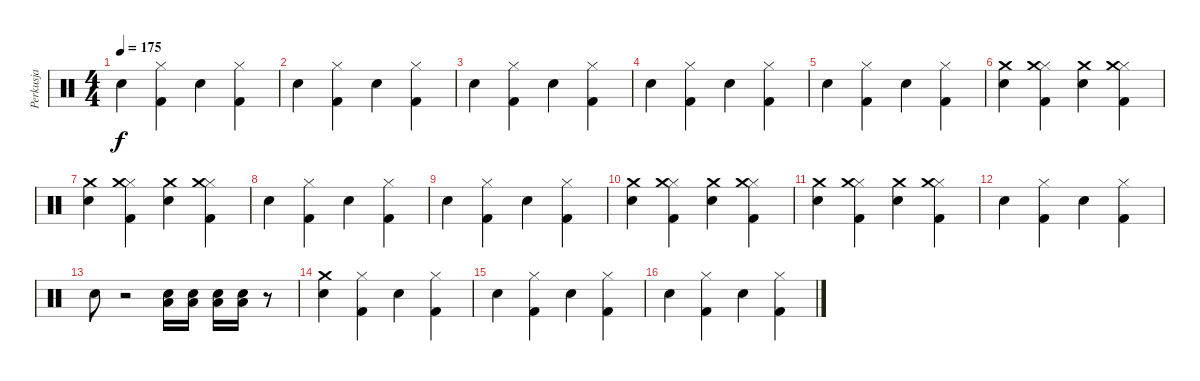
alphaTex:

\track ("Perkusja" "Perkusja") {instrument percussion}
\staff {score}
\articulation defaults
\ts (4 4)
\tempo 175
\clef neutral
\ks c "Snare (hit) 2".4{dy f}
("Kick (hit) 2" "Hi-Hat (closed)").4 "Snare (hit) 2".4 ("Kick (hit) 2" "Hi-Hat (closed)").4 |
"Snare (hit) 2".4 ("Kick (hit) 2" "Hi-Hat (closed)").4 "Snare (hit) 2".4 ("Kick (hit) 2" "Hi-Hat (closed)").4 |
"Snare (hit) 2".4 ("Kick (hit) 2" "Hi-Hat (closed)").4 "Snare (hit) 2".4 ("Kick (hit) 2" "Hi-Hat (closed)").4 |
"Snare (hit) 2".4 ("Kick (hit) 2" "Hi-Hat (closed)").4 "Snare (hit) 2".4 ("Kick (hit) 2" "Hi-Hat (closed)").4 |
"Snare (hit) 2".4 ("Kick (hit) 2" "Hi-Hat (closed)").4 "Snare (hit) 2".4 ("Kick (hit) 2" "Hi-Hat (closed)").4 |
("Snare (hit) 2" "Crash medium (hit)").4 ("Kick (hit) 2" "Hi-Hat (closed)" "Crash medium (hit)").4 ("Snare (hit) 2" "Crash medium (hit)").4 ("Kick (hit) 2" "Hi-Hat (closed)" "Crash medium (hit)").4 |
("Snare (hit) 2" "Crash medium (hit)").4 ("Kick (hit) 2" "Hi-Hat (closed)" "Crash medium (hit)").4 ("Snare (hit) 2" "Crash medium (hit)").4 ("Kick (hit) 2" "Hi-Hat (closed)" "Crash medium (hit)").4 |
"Snare (hit) 2".4 ("Kick (hit) 2" "Hi-Hat (closed)").4 "Snare (hit) 2".4 ("Kick (hit) 2" "Hi-Hat (closed)").4 |
"Snare (hit) 2".4 ("Kick (hit) 2" "Hi-Hat (closed)").4 "Snare (hit) 2".4 ("Kick (hit) 2" "Hi-Hat (closed)").4 |
("Snare (hit) 2" "Crash medium (hit)").4 ("Kick (hit) 2" "Hi-Hat (closed)" "Crash medium (hit)").4 ("Snare (hit) 2" "Crash medium (hit)").4 ("Kick (hit) 2" "Hi-Hat (closed)" "Crash medium (hit)").4 |
("Snare (hit) 2" "Crash medium (hit)").4 ("Kick (hit) 2" "Hi-Hat (closed)" "Crash medium (hit)").4 ("Snare (hit) 2" "Crash medium (hit)").4 ("Kick (hit) 2" "Hi-Hat (closed)" "Crash medium (hit)").4 |
"Snare (hit) 2".4 ("Kick (hit) 2" "Hi-Hat (closed)").4 "Snare (hit) 2".4 ("Kick (hit) 2" "Hi-Hat (closed)").4 |
"Snare (hit) 2".8 r.2 ("Snare (hit) 2" "Low Tom (hit)").16 ("Snare (hit) 2" "Low Tom (hit)").16 ("Snare (hit) 2" "Low Tom (hit)").16 ("Snare (hit) 2" "Low Tom (hit)").16 r.8 |
("Snare (hit) 2" "Crash medium (hit)").4 ("Kick (hit) 2" "Hi-Hat (closed)").4 "Snare (hit) 2".4 ("Kick (hit) 2" "Hi-Hat (closed)").4 |
"Snare (hit) 2".4 ("Kick (hit) 2" "Hi-Hat (closed)").4 "Snare (hit) 2".4 ("Kick (hit) 2" "Hi-Hat (closed)").4 |
"Snare (hit) 2".4 ("Kick (hit) 2" "Hi-Hat (closed)").4 "Snare (hit) 2".4 ("Kick (hit) 2" "Hi-Hat (closed)").4
